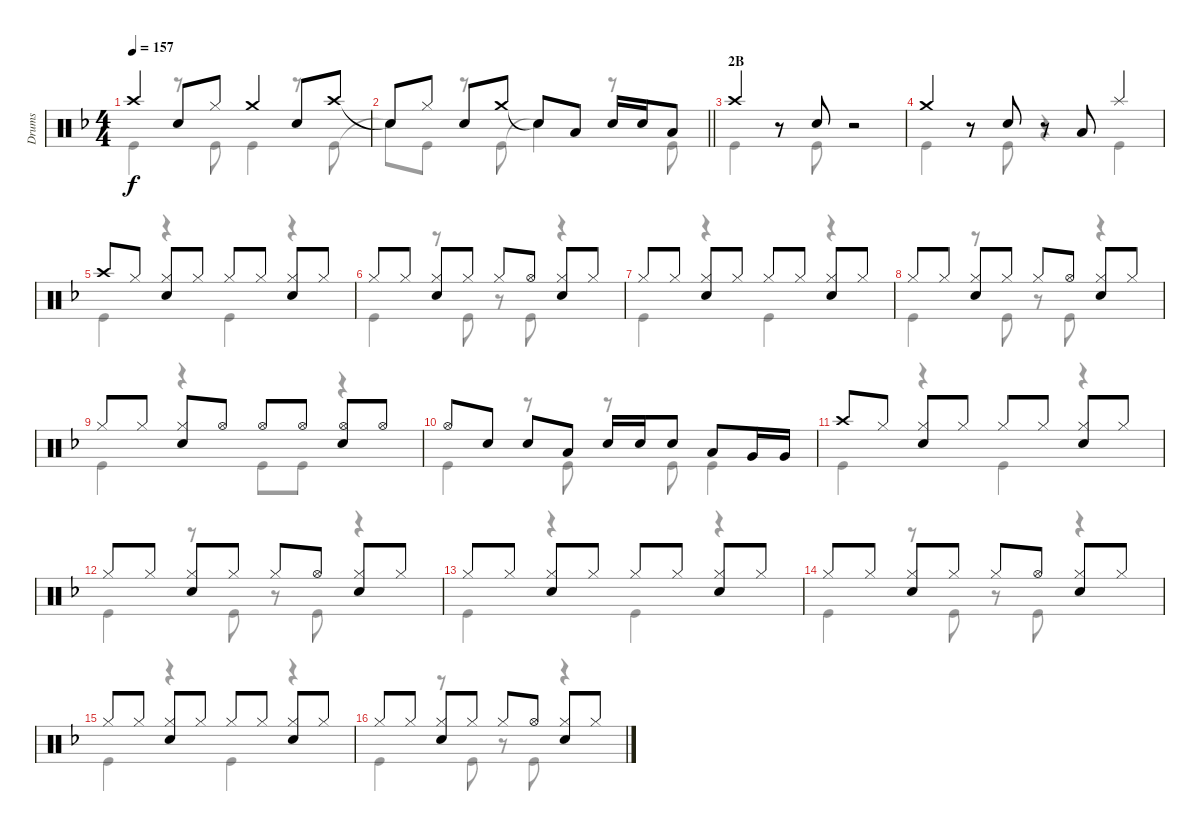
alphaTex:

\track ("Drums" "Drums") {instrument percussion}
\staff {score}
\articulation defaults
\voice
\ts (4 4)
\tempo 157
\clef neutral
\ks f "Crash high (hit)".4{dy f} "Snare (hit) 2".8 "Hi-Hat (closed)".8 "Crash medium (hit)".4 "Snare (hit) 2".8 "Crash high (hit)".8
|
\barLineRight lightlight "Snare (hit)"{t}.8 "Hi-Hat (closed)".8 "Snare (hit) 2".8 "Crash medium (hit)".8 "Snare (hit)"{t}.8 "Low Tom (hit)".8 "Snare (hit) 2".16 "Snare (hit) 2".16 "Low Tom (hit)".8
|
\section ("" "2B")
"Crash high (hit)".4 r.8 "Snare (hit) 2".8 r.2 |
"Crash medium (hit)".4 r.8 "Snare (hit) 2".8 r.8 "Low Tom (hit)".8 "Splash (hit)".4 |
"Crash high (hit)".8 "Hi-Hat (closed)".8 ("Hi-Hat (closed)" "Snare (hit) 2").8 "Hi-Hat (closed)".8 "Hi-Hat (closed)".8 "Hi-Hat (closed)".8 ("Hi-Hat (closed)" "Snare (hit) 2").8 "Hi-Hat (closed)".8 |
"Hi-Hat (closed)".8 "Hi-Hat (closed)".8 ("Hi-Hat (closed)" "Snare (hit) 2").8 "Hi-Hat (closed)".8 "Hi-Hat (closed)".8 "Hi-Hat (open)".8 ("Hi-Hat (closed)" "Snare (hit) 2").8 "Hi-Hat (closed)".8 |
"Hi-Hat (closed)".8 "Hi-Hat (closed)".8 ("Hi-Hat (closed)" "Snare (hit) 2").8 "Hi-Hat (closed)".8 "Hi-Hat (closed)".8 "Hi-Hat (closed)".8 ("Hi-Hat (closed)" "Snare (hit) 2").8 "Hi-Hat (closed)".8 |
"Hi-Hat (closed)".8 "Hi-Hat (closed)".8 ("Hi-Hat (closed)" "Snare (hit) 2").8 "Hi-Hat (closed)".8 "Hi-Hat (closed)".8 "Hi-Hat (open)".8 ("Hi-Hat (closed)" "Snare (hit) 2").8 "Hi-Hat (closed)".8 |
"Hi-Hat (closed)".8 "Hi-Hat (closed)".8 ("Hi-Hat (closed)" "Snare (hit) 2").8 "Hi-Hat (open)".8 "Hi-Hat (open)".8 "Hi-Hat (open)".8 ("Hi-Hat (open)" "Snare (hit) 2").8 "Hi-Hat (open)".8 |
"Hi-Hat (open)".8 "Snare (hit) 2".8 "Snare (hit) 2".8 "Low Tom (hit)".8 "Snare (hit) 2".16 "Snare (hit) 2".16 "Snare (hit) 2".8 "Low Tom (hit)".8 "Very Low Tom (hit)".16 "Very Low Tom (hit)".16 |
"Crash high (hit)".8 "Hi-Hat (closed)".8 ("Hi-Hat (closed)" "Snare (hit) 2").8 "Hi-Hat (closed)".8 "Hi-Hat (closed)".8 "Hi-Hat (closed)".8 ("Hi-Hat (closed)" "Snare (hit) 2").8 "Hi-Hat (closed)".8 |
"Hi-Hat (closed)".8 "Hi-Hat (closed)".8 ("Hi-Hat (closed)" "Snare (hit) 2").8 "Hi-Hat (closed)".8 "Hi-Hat (closed)".8 "Hi-Hat (open)".8 ("Hi-Hat (closed)" "Snare (hit) 2").8 "Hi-Hat (closed)".8 |
"Hi-Hat (closed)".8 "Hi-Hat (closed)".8 ("Hi-Hat (closed)" "Snare (hit) 2").8 "Hi-Hat (closed)".8 "Hi-Hat (closed)".8 "Hi-Hat (closed)".8 ("Hi-Hat (closed)" "Snare (hit) 2").8 "Hi-Hat (closed)".8 |
"Hi-Hat (closed)".8 "Hi-Hat (closed)".8 ("Hi-Hat (closed)" "Snare (hit) 2").8 "Hi-Hat (closed)".8 "Hi-Hat (closed)".8 "Hi-Hat (open)".8 ("Hi-Hat (closed)" "Snare (hit) 2").8 "Hi-Hat (closed)".8 |
"Hi-Hat (closed)".8 "Hi-Hat (closed)".8 ("Hi-Hat (closed)" "Snare (hit) 2").8 "Hi-Hat (closed)".8 "Hi-Hat (closed)".8 "Hi-Hat (closed)".8 ("Hi-Hat (closed)" "Snare (hit) 2").8 "Hi-Hat (closed)".8 |
"Hi-Hat (closed)".8 "Hi-Hat (closed)".8 ("Hi-Hat (closed)" "Snare (hit) 2").8 "Hi-Hat (closed)".8 "Hi-Hat (closed)".8 "Hi-Hat (open)".8 ("Hi-Hat (closed)" "Snare (hit) 2").8 "Hi-Hat (closed)".8
\voice
\clef neutral
\ottava regular
\simile none
\ks f "Kick (hit)".4{dy f}
r.8 "Kick (hit)".8 "Kick (hit)".4 r.8 "Kick (hit)".8 |
\barLineRight lightlight "Snare (hit)"{t}.8 "Kick (hit)".8
r.8 "Kick (hit)".8 "Snare (hit)"{t}.4 r.8 "Kick (hit)".8 |
"Kick (hit)".4 r.8 "Kick (hit)".8 r.2 |
"Kick (hit)".4 r.8 "Kick (hit)".8 r.4 "Kick (hit)".4 |
"Kick (hit)".4 r.4 "Kick (hit)".4 r.4 |
"Kick (hit)".4 r.8 "Kick (hit)".8 r.8 "Kick (hit)".8 r.4 |
"Kick (hit)".4 r.4 "Kick (hit)".4 r.4 |
"Kick (hit)".4 r.8 "Kick (hit)".8 r.8 "Kick (hit)".8 r.4 |
"Kick (hit)".4 r.4 "Kick (hit)".8 "Kick (hit)".8 r.4 |
"Kick (hit)".4 r.8 "Kick (hit)".8 r.8 "Kick (hit)".8 "Kick (hit)".4 |
"Kick (hit)".4 r.4 "Kick (hit)".4 r.4 |
"Kick (hit)".4 r.8 "Kick (hit)".8 r.8 "Kick (hit)".8 r.4 |
"Kick (hit)".4 r.4 "Kick (hit)".4 r.4 |
"Kick (hit)".4 r.8 "Kick (hit)".8 r.8 "Kick (hit)".8 r.4 |
"Kick (hit)".4 r.4 "Kick (hit)".4 r.4 |
"Kick (hit)".4 r.8 "Kick (hit)".8 r.8 "Kick (hit)".8 r.4
